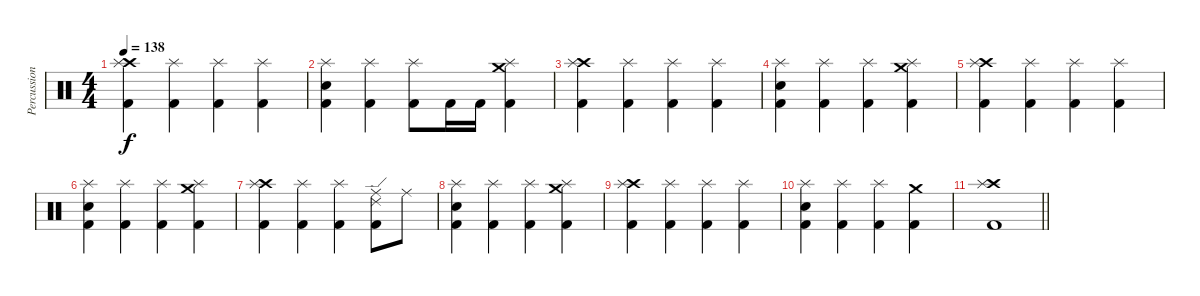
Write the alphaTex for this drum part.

\track ("Percussions" "Percussion") {instrument percussion}
\staff {score}
\articulation defaults
\ts (4 4)
\tempo 138
\clef neutral
\ks c
("Crash high (hit)" "Splash (hit)" "Kick (hit) 2").4{dy f} ("Splash (hit)" "Kick (hit) 2").4 ("Splash (hit)" "Kick (hit) 2").4 ("Splash (hit)" "Kick (hit) 2").4 |
("Splash (hit)" "Snare (hit) 2" "Kick (hit) 2").4 ("Splash (hit)" "Kick (hit) 2").4 ("Splash (hit)" "Kick (hit) 2").8 "Kick (hit) 2".16 "Kick (hit) 2".16 ("Crash medium (hit)" "Splash (hit)" "Kick (hit) 2").4 |
("Crash high (hit)" "Splash (hit)" "Kick (hit) 2").4 ("Splash (hit)" "Kick (hit) 2").4 ("Splash (hit)" "Kick (hit) 2").4 ("Splash (hit)" "Kick (hit) 2").4 |
("Splash (hit)" "Snare (hit) 2" "Kick (hit) 2").4 ("Splash (hit)" "Kick (hit) 2").4 ("Splash (hit)" "Kick (hit) 2").4 ("Crash medium (hit)" "Splash (hit)" "Kick (hit) 2").4 |
("Crash high (hit)" "Splash (hit)" "Kick (hit) 2").4 ("Splash (hit)" "Kick (hit) 2").4 ("Splash (hit)" "Kick (hit) 2").4 ("Splash (hit)" "Kick (hit) 2").4 |
("Splash (hit)" "Snare (hit) 2" "Kick (hit) 2").4 ("Splash (hit)" "Kick (hit) 2").4 ("Splash (hit)" "Kick (hit) 2").4 ("Crash medium (hit)" "Splash (hit)" "Kick (hit) 2").4 |
("Crash high (hit)" "Splash (hit)" "Kick (hit) 2").4 ("Splash (hit)" "Kick (hit) 2").4 ("Splash (hit)" "Kick (hit) 2").4 ("Ride (edge) 2" "Ride (middle)" "Kick (hit) 2").8 "Ride (middle)".8 |
("Splash (hit)" "Snare (hit) 2" "Kick (hit) 2").4 ("Splash (hit)" "Kick (hit) 2").4 ("Splash (hit)" "Kick (hit) 2").4 ("Crash medium (hit)" "Splash (hit)" "Kick (hit) 2").4 |
("Crash high (hit)" "Splash (hit)" "Kick (hit) 2").4 ("Splash (hit)" "Kick (hit) 2").4 ("Splash (hit)" "Kick (hit) 2").4 ("Splash (hit)" "Kick (hit) 2").4 |
("Splash (hit)" "Snare (hit) 2" "Kick (hit) 2").4 ("Splash (hit)" "Kick (hit) 2").4 ("Splash (hit)" "Kick (hit) 2").4 ("Crash medium (hit)" "Kick (hit) 2").4 |
\barLineRight lightlight
("Crash high (hit)" "Splash (hit)" "Kick (hit) 2").1
